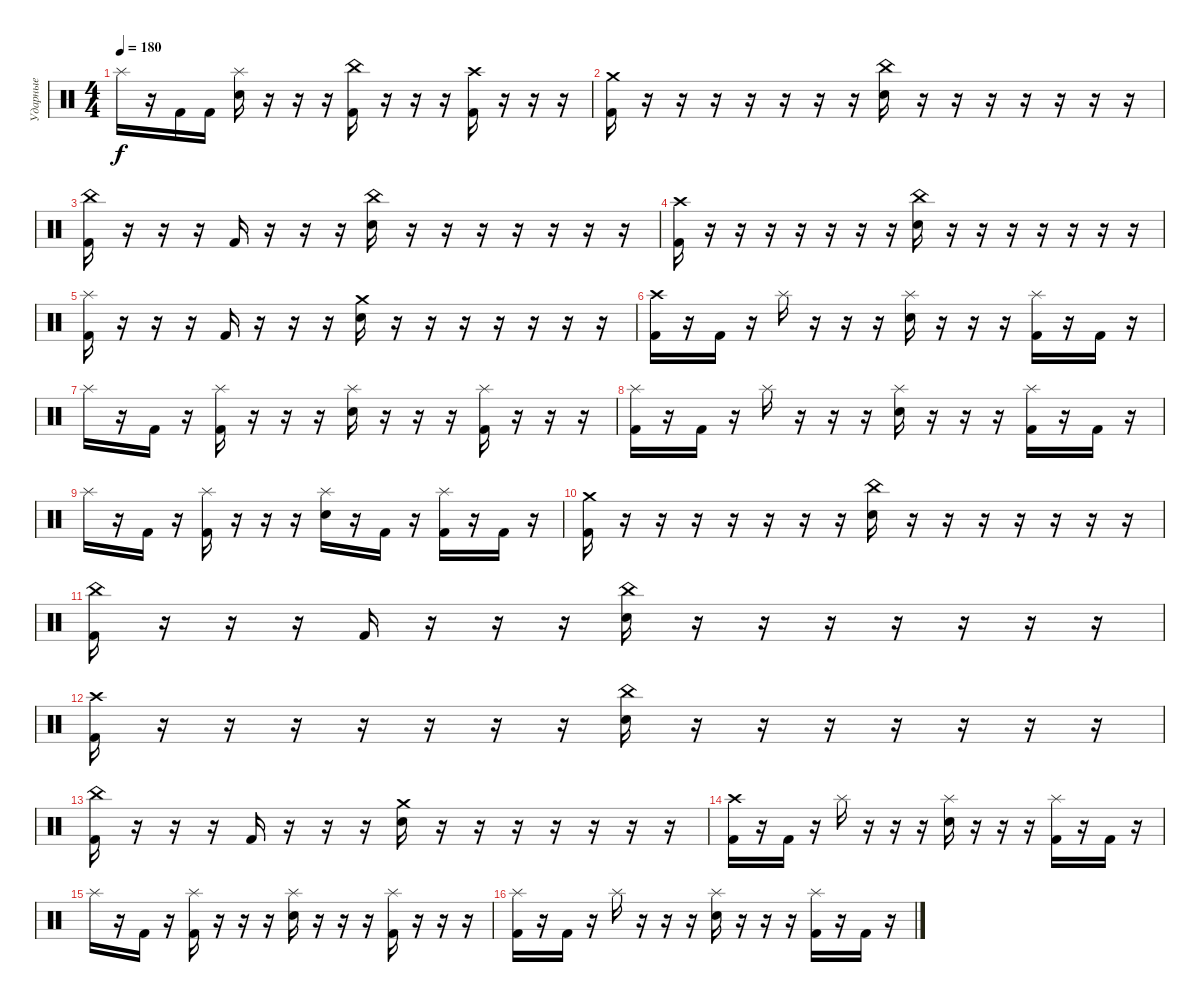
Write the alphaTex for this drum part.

\track ("Ударные" "Ударные") {instrument percussion}
\staff {score}
\articulation defaults
\ts (4 4)
\tempo 180
\clef neutral
\ks c "Splash (hit)".16{dy f}
r.16 "Kick (hit) 2".16 "Kick (hit) 2".16 ("Electric Snare (hit)" "Splash (hit)").16 r.16 r.16 r.16 ("Kick (hit) 2" "China (hit)").16 r.16 r.16 r.16 ("Kick (hit) 2" "Crash high (hit)").16 r.16 r.16 r.16 |
("Kick (hit) 2" "Crash medium (hit)").16 r.16 r.16 r.16 r.16 r.16 r.16 r.16 ("Electric Snare (hit)" "China (hit)").16 r.16 r.16 r.16 r.16 r.16 r.16 r.16 |
("Kick (hit) 2" "China (hit)").16 r.16 r.16 r.16 "Kick (hit) 2".16 r.16 r.16 r.16 ("Electric Snare (hit)" "China (hit)").16 r.16 r.16 r.16 r.16 r.16 r.16 r.16 |
("Kick (hit) 2" "Crash high (hit)").16 r.16 r.16 r.16 r.16 r.16 r.16 r.16 ("Electric Snare (hit)" "China (hit)").16 r.16 r.16 r.16 r.16 r.16 r.16 r.16 |
("Kick (hit) 2" "Splash (hit)").16 r.16 r.16 r.16 "Kick (hit) 2".16 r.16 r.16 r.16 ("Electric Snare (hit)" "Crash medium (hit)").16 r.16 r.16 r.16 r.16 r.16 r.16 r.16 |
("Kick (hit) 2" "Crash high (hit)").16 r.16 "Kick (hit) 2".16 r.16 "Splash (hit)".16 r.16 r.16 r.16 ("Electric Snare (hit)" "Splash (hit)").16 r.16 r.16 r.16 ("Kick (hit) 2" "Splash (hit)").16 r.16 "Kick (hit) 2".16 r.16 |
"Splash (hit)".16 r.16 "Kick (hit) 2".16 r.16 ("Kick (hit) 2" "Splash (hit)").16 r.16 r.16 r.16 ("Electric Snare (hit)" "Splash (hit)").16 r.16 r.16 r.16 ("Kick (hit) 2" "Splash (hit)").16 r.16 r.16 r.16 |
("Kick (hit) 2" "Splash (hit)").16 r.16 "Kick (hit) 2".16 r.16 "Splash (hit)".16 r.16 r.16 r.16 ("Electric Snare (hit)" "Splash (hit)").16 r.16 r.16 r.16 ("Kick (hit) 2" "Splash (hit)").16 r.16 "Kick (hit) 2".16 r.16 |
"Splash (hit)".16 r.16 "Kick (hit) 2".16 r.16 ("Kick (hit) 2" "Splash (hit)").16 r.16 r.16 r.16 ("Electric Snare (hit)" "Splash (hit)").16 r.16 "Kick (hit) 2".16 r.16 ("Kick (hit) 2" "Splash (hit)").16 r.16 "Kick (hit) 2".16 r.16 |
("Kick (hit) 2" "Crash medium (hit)").16 r.16 r.16 r.16 r.16 r.16 r.16 r.16 ("Electric Snare (hit)" "China (hit)").16 r.16 r.16 r.16 r.16 r.16 r.16 r.16 |
("Kick (hit) 2" "China (hit)").16 r.16 r.16 r.16 "Kick (hit) 2".16 r.16 r.16 r.16 ("Electric Snare (hit)" "China (hit)").16 r.16 r.16 r.16 r.16 r.16 r.16 r.16 |
("Kick (hit) 2" "Crash high (hit)").16 r.16 r.16 r.16 r.16 r.16 r.16 r.16 ("Electric Snare (hit)" "China (hit)").16 r.16 r.16 r.16 r.16 r.16 r.16 r.16 |
("Kick (hit) 2" "China (hit)").16 r.16 r.16 r.16 "Kick (hit) 2".16 r.16 r.16 r.16 ("Electric Snare (hit)" "Crash medium (hit)").16 r.16 r.16 r.16 r.16 r.16 r.16 r.16 |
("Kick (hit) 2" "Crash high (hit)").16 r.16 "Kick (hit) 2".16 r.16 "Splash (hit)".16 r.16 r.16 r.16 ("Electric Snare (hit)" "Splash (hit)").16 r.16 r.16 r.16 ("Kick (hit) 2" "Splash (hit)").16 r.16 "Kick (hit) 2".16 r.16 |
"Splash (hit)".16 r.16 "Kick (hit) 2".16 r.16 ("Kick (hit) 2" "Splash (hit)").16 r.16 r.16 r.16 ("Electric Snare (hit)" "Splash (hit)").16 r.16 r.16 r.16 ("Kick (hit) 2" "Splash (hit)").16 r.16 r.16 r.16 |
("Kick (hit) 2" "Splash (hit)").16 r.16 "Kick (hit) 2".16 r.16 "Splash (hit)".16 r.16 r.16 r.16 ("Electric Snare (hit)" "Splash (hit)").16 r.16 r.16 r.16 ("Kick (hit) 2" "Splash (hit)").16 r.16 "Kick (hit) 2".16 r.16
